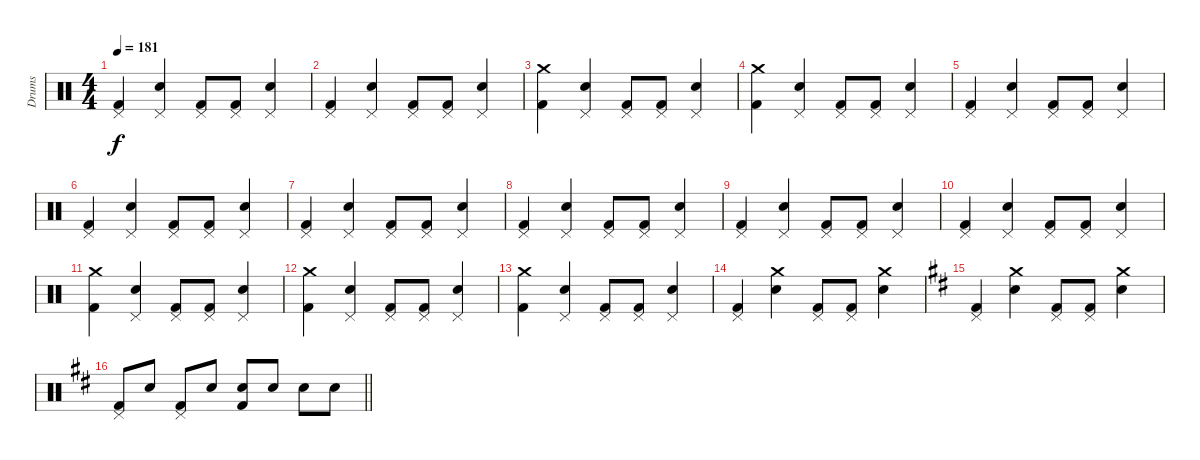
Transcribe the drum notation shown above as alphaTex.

\track ("Drums" "Drums") {instrument percussion}
\staff {score}
\articulation defaults
\ts (4 4)
\tempo 181
\clef neutral
\ks c
("Pedal Hi-Hat (hit)" "Kick (hit) 2").4{dy f} ("Pedal Hi-Hat (hit)" "Snare (hit) 2").4 ("Pedal Hi-Hat (hit)" "Kick (hit) 2").8 ("Pedal Hi-Hat (hit)" "Kick (hit) 2").8 ("Pedal Hi-Hat (hit)" "Snare (hit) 2").4 |
("Pedal Hi-Hat (hit)" "Kick (hit) 2").4 ("Pedal Hi-Hat (hit)" "Snare (hit) 2").4 ("Pedal Hi-Hat (hit)" "Kick (hit) 2").8 ("Pedal Hi-Hat (hit)" "Kick (hit) 2").8 ("Pedal Hi-Hat (hit)" "Snare (hit) 2").4 |
("Crash medium (hit)" "Kick (hit) 2").4 ("Pedal Hi-Hat (hit)" "Snare (hit) 2").4 ("Pedal Hi-Hat (hit)" "Kick (hit) 2").8 ("Pedal Hi-Hat (hit)" "Kick (hit) 2").8 ("Pedal Hi-Hat (hit)" "Snare (hit) 2").4 |
("Crash medium (hit)" "Kick (hit) 2").4 ("Pedal Hi-Hat (hit)" "Snare (hit) 2").4 ("Pedal Hi-Hat (hit)" "Kick (hit) 2").8 ("Pedal Hi-Hat (hit)" "Kick (hit) 2").8 ("Pedal Hi-Hat (hit)" "Snare (hit) 2").4 |
("Pedal Hi-Hat (hit)" "Kick (hit) 2").4 ("Pedal Hi-Hat (hit)" "Snare (hit) 2").4 ("Pedal Hi-Hat (hit)" "Kick (hit) 2").8 ("Pedal Hi-Hat (hit)" "Kick (hit) 2").8 ("Pedal Hi-Hat (hit)" "Snare (hit) 2").4 |
("Pedal Hi-Hat (hit)" "Kick (hit) 2").4 ("Pedal Hi-Hat (hit)" "Snare (hit) 2").4 ("Pedal Hi-Hat (hit)" "Kick (hit) 2").8 ("Pedal Hi-Hat (hit)" "Kick (hit) 2").8 ("Pedal Hi-Hat (hit)" "Snare (hit) 2").4 |
("Pedal Hi-Hat (hit)" "Kick (hit) 2").4 ("Pedal Hi-Hat (hit)" "Snare (hit) 2").4 ("Pedal Hi-Hat (hit)" "Kick (hit) 2").8 ("Pedal Hi-Hat (hit)" "Kick (hit) 2").8 ("Pedal Hi-Hat (hit)" "Snare (hit) 2").4 |
("Pedal Hi-Hat (hit)" "Kick (hit) 2").4 ("Pedal Hi-Hat (hit)" "Snare (hit) 2").4 ("Pedal Hi-Hat (hit)" "Kick (hit) 2").8 ("Pedal Hi-Hat (hit)" "Kick (hit) 2").8 ("Pedal Hi-Hat (hit)" "Snare (hit) 2").4 |
("Pedal Hi-Hat (hit)" "Kick (hit) 2").4 ("Pedal Hi-Hat (hit)" "Snare (hit) 2").4 ("Pedal Hi-Hat (hit)" "Kick (hit) 2").8 ("Pedal Hi-Hat (hit)" "Kick (hit) 2").8 ("Pedal Hi-Hat (hit)" "Snare (hit) 2").4 |
("Pedal Hi-Hat (hit)" "Kick (hit) 2").4 ("Pedal Hi-Hat (hit)" "Snare (hit) 2").4 ("Pedal Hi-Hat (hit)" "Kick (hit) 2").8 ("Pedal Hi-Hat (hit)" "Kick (hit) 2").8 ("Pedal Hi-Hat (hit)" "Snare (hit) 2").4 |
("Crash medium (hit)" "Kick (hit) 2").4 ("Pedal Hi-Hat (hit)" "Snare (hit) 2").4 ("Pedal Hi-Hat (hit)" "Kick (hit) 2").8 ("Pedal Hi-Hat (hit)" "Kick (hit) 2").8 ("Pedal Hi-Hat (hit)" "Snare (hit) 2").4 |
("Crash medium (hit)" "Kick (hit) 2").4 ("Pedal Hi-Hat (hit)" "Snare (hit) 2").4 ("Pedal Hi-Hat (hit)" "Kick (hit) 2").8 ("Pedal Hi-Hat (hit)" "Kick (hit) 2").8 ("Pedal Hi-Hat (hit)" "Snare (hit) 2").4 |
("Crash medium (hit)" "Kick (hit) 2").4 ("Pedal Hi-Hat (hit)" "Snare (hit) 2").4 ("Pedal Hi-Hat (hit)" "Kick (hit) 2").8 ("Pedal Hi-Hat (hit)" "Kick (hit) 2").8 ("Pedal Hi-Hat (hit)" "Snare (hit) 2").4 |
("Pedal Hi-Hat (hit)" "Kick (hit) 2").4 ("Crash medium (hit)" "Snare (hit) 2").4 ("Pedal Hi-Hat (hit)" "Kick (hit) 2").8 ("Pedal Hi-Hat (hit)" "Kick (hit) 2").8 ("Crash medium (hit)" "Snare (hit) 2").4 |
\ks d
("Pedal Hi-Hat (hit)" "Kick (hit) 2").4 ("Crash medium (hit)" "Snare (hit) 2").4 ("Pedal Hi-Hat (hit)" "Kick (hit) 2").8 ("Pedal Hi-Hat (hit)" "Kick (hit) 2").8 ("Crash medium (hit)" "Snare (hit) 2").4 |
\barLineRight lightlight
("Pedal Hi-Hat (hit)" "Kick (hit) 2").8 "Snare (hit) 2".8 ("Pedal Hi-Hat (hit)" "Kick (hit) 2").8 "Snare (hit) 2".8 ("Snare (hit) 2" "Kick (hit) 2").8 "Snare (hit) 2".8 "Snare (hit) 2".8 "Snare (hit) 2".8
